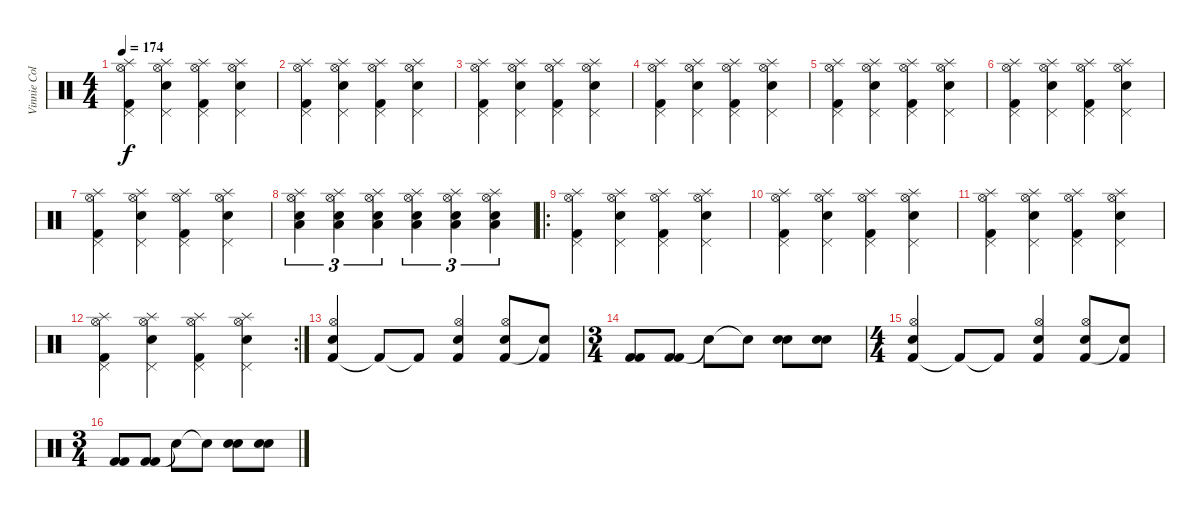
\track ("Vinnie Colaiuta" "Vinnie Col") {instrument percussion}
\staff {score}
\articulation defaults
\ts (4 4)
\tempo 174
\clef neutral
\ks c
("Splash (hit)" "Kick (hit) 2" "Pedal Hi-Hat (hit)" "Hi-Hat (open)").4{dy f} ("Splash (hit)" "Snare (hit) 2" "Pedal Hi-Hat (hit)" "Hi-Hat (open)").4 ("Splash (hit)" "Kick (hit) 2" "Pedal Hi-Hat (hit)" "Hi-Hat (open)").4 ("Splash (hit)" "Snare (hit) 2" "Pedal Hi-Hat (hit)" "Hi-Hat (open)").4 |
("Splash (hit)" "Kick (hit) 2" "Pedal Hi-Hat (hit)" "Hi-Hat (open)").4 ("Splash (hit)" "Snare (hit) 2" "Pedal Hi-Hat (hit)" "Hi-Hat (open)").4 ("Splash (hit)" "Kick (hit) 2" "Pedal Hi-Hat (hit)" "Hi-Hat (open)").4 ("Splash (hit)" "Snare (hit) 2" "Pedal Hi-Hat (hit)" "Hi-Hat (open)").4 |
("Splash (hit)" "Kick (hit) 2" "Pedal Hi-Hat (hit)" "Hi-Hat (open)").4 ("Splash (hit)" "Snare (hit) 2" "Pedal Hi-Hat (hit)" "Hi-Hat (open)").4 ("Splash (hit)" "Kick (hit) 2" "Pedal Hi-Hat (hit)" "Hi-Hat (open)").4 ("Splash (hit)" "Snare (hit) 2" "Pedal Hi-Hat (hit)" "Hi-Hat (open)").4 |
("Splash (hit)" "Kick (hit) 2" "Pedal Hi-Hat (hit)" "Hi-Hat (open)").4 ("Splash (hit)" "Snare (hit) 2" "Pedal Hi-Hat (hit)" "Hi-Hat (open)").4 ("Splash (hit)" "Kick (hit) 2" "Pedal Hi-Hat (hit)" "Hi-Hat (open)").4 ("Splash (hit)" "Snare (hit) 2" "Pedal Hi-Hat (hit)" "Hi-Hat (open)").4 |
("Splash (hit)" "Kick (hit) 2" "Pedal Hi-Hat (hit)" "Hi-Hat (open)").4 ("Splash (hit)" "Snare (hit) 2" "Pedal Hi-Hat (hit)" "Hi-Hat (open)").4 ("Splash (hit)" "Kick (hit) 2" "Pedal Hi-Hat (hit)" "Hi-Hat (open)").4 ("Splash (hit)" "Snare (hit) 2" "Pedal Hi-Hat (hit)" "Hi-Hat (open)").4 |
("Splash (hit)" "Kick (hit) 2" "Pedal Hi-Hat (hit)" "Hi-Hat (open)").4 ("Splash (hit)" "Snare (hit) 2" "Pedal Hi-Hat (hit)" "Hi-Hat (open)").4 ("Splash (hit)" "Kick (hit) 2" "Pedal Hi-Hat (hit)" "Hi-Hat (open)").4 ("Splash (hit)" "Snare (hit) 2" "Pedal Hi-Hat (hit)" "Hi-Hat (open)").4 |
("Splash (hit)" "Kick (hit) 2" "Pedal Hi-Hat (hit)" "Hi-Hat (open)").4 ("Splash (hit)" "Snare (hit) 2" "Pedal Hi-Hat (hit)" "Hi-Hat (open)").4 ("Splash (hit)" "Kick (hit) 2" "Pedal Hi-Hat (hit)" "Hi-Hat (open)").4 ("Splash (hit)" "Snare (hit) 2" "Pedal Hi-Hat (hit)" "Hi-Hat (open)").4 |
("Low Floor Tom (hit)" "Snare (hit) 2" "Splash (hit)" "Hi-Hat (open)").4{tu (3 2)} ("Low Floor Tom (hit)" "Snare (hit) 2" "Splash (hit)" "Hi-Hat (open)").4{tu (3 2)} ("Low Floor Tom (hit)" "Snare (hit) 2" "Splash (hit)" "Hi-Hat (open)").4{tu (3 2)} ("Low Floor Tom (hit)" "Snare (hit) 2" "Splash (hit)" "Hi-Hat (open)").4{tu (3 2)} ("Low Floor Tom (hit)" "Snare (hit) 2" "Splash (hit)" "Hi-Hat (open)").4{tu (3 2)} ("Low Floor Tom (hit)" "Snare (hit) 2" "Splash (hit)" "Hi-Hat (open)").4{tu (3 2)} |
\ro
("Splash (hit)" "Kick (hit) 2" "Pedal Hi-Hat (hit)" "Hi-Hat (open)").4 ("Splash (hit)" "Snare (hit) 2" "Pedal Hi-Hat (hit)" "Hi-Hat (open)").4 ("Splash (hit)" "Kick (hit) 2" "Pedal Hi-Hat (hit)" "Hi-Hat (open)").4 ("Splash (hit)" "Snare (hit) 2" "Pedal Hi-Hat (hit)" "Hi-Hat (open)").4 |
("Splash (hit)" "Kick (hit) 2" "Pedal Hi-Hat (hit)" "Hi-Hat (open)").4 ("Splash (hit)" "Snare (hit) 2" "Pedal Hi-Hat (hit)" "Hi-Hat (open)").4 ("Splash (hit)" "Kick (hit) 2" "Pedal Hi-Hat (hit)" "Hi-Hat (open)").4 ("Splash (hit)" "Snare (hit) 2" "Pedal Hi-Hat (hit)" "Hi-Hat (open)").4 |
("Splash (hit)" "Kick (hit) 2" "Pedal Hi-Hat (hit)" "Hi-Hat (open)").4 ("Splash (hit)" "Snare (hit) 2" "Pedal Hi-Hat (hit)" "Hi-Hat (open)").4 ("Splash (hit)" "Kick (hit) 2" "Pedal Hi-Hat (hit)" "Hi-Hat (open)").4 ("Splash (hit)" "Snare (hit) 2" "Pedal Hi-Hat (hit)" "Hi-Hat (open)").4 |
\rc 2
("Splash (hit)" "Kick (hit) 2" "Pedal Hi-Hat (hit)" "Hi-Hat (open)").4 ("Splash (hit)" "Snare (hit) 2" "Pedal Hi-Hat (hit)" "Hi-Hat (open)").4 ("Splash (hit)" "Kick (hit) 2" "Pedal Hi-Hat (hit)" "Hi-Hat (open)").4 ("Splash (hit)" "Snare (hit) 2" "Pedal Hi-Hat (hit)" "Hi-Hat (open)").4 |
("Kick (hit) 2" "Snare (hit) 2" "Hi-Hat (open)").4 "Kick (hit) 2"{t}.8 "Kick (hit) 2"{t}.8 ("Kick (hit) 2" "Snare (hit) 2" "Hi-Hat (open)").4 ("Kick (hit) 2" "Snare (hit) 2" "Hi-Hat (open)").8 ("Snare (hit)"{t} "Kick (hit) 2").8 |
\ts (3 4)
("Kick (hit) 2" "Kick (hit) 2").8 ("Kick (hit) 2" "Kick (hit) 2").8 "Snare (hit) 2"{t}.8 "Snare (hit) 2"{t}.8 ("Snare (hit) 2" "Snare (hit) 2").8 ("Snare (hit) 2" "Snare (hit) 2").8 |
\ts (4 4)
("Kick (hit) 2" "Snare (hit) 2" "Hi-Hat (open)").4 "Kick (hit) 2"{t}.8 "Kick (hit) 2"{t}.8 ("Kick (hit) 2" "Snare (hit) 2" "Hi-Hat (open)").4 ("Kick (hit) 2" "Snare (hit) 2" "Hi-Hat (open)").8 ("Snare (hit)"{t} "Kick (hit) 2").8 |
\ts (3 4)
("Kick (hit) 2" "Kick (hit) 2").8 ("Kick (hit) 2" "Kick (hit) 2").8 "Snare (hit) 2"{t}.8 "Snare (hit) 2"{t}.8 ("Snare (hit) 2" "Snare (hit) 2").8 ("Snare (hit) 2" "Snare (hit) 2").8
